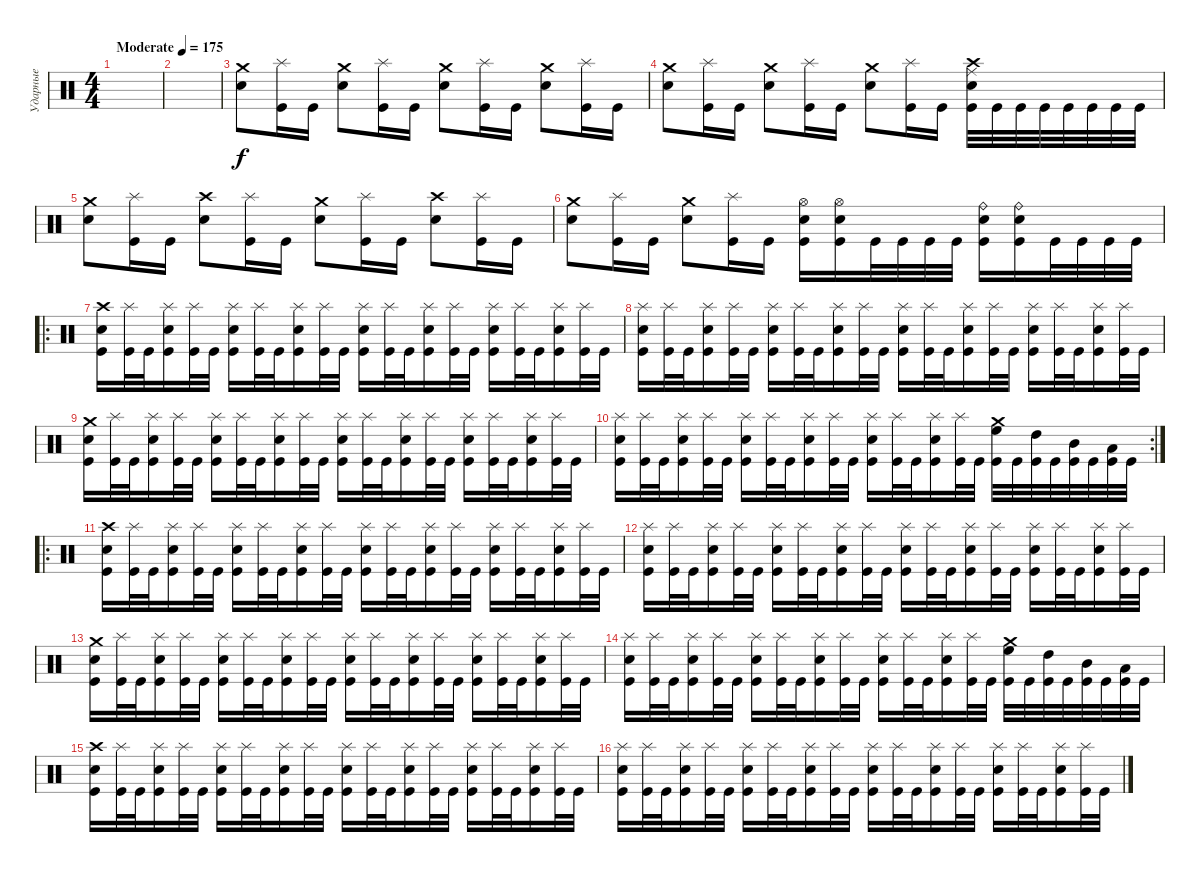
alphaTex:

\track ("Ударные" "Ударные") {instrument percussion}
\staff {score}
\articulation defaults
\ts (4 4)
\tempo (175 "Moderate")
\clef neutral
\ks c
|
|
("Snare (hit) 2" "Crash medium (hit)").8 ("Splash (hit)" "Kick (hit)").16 "Kick (hit)".16 ("Snare (hit) 2" "Crash medium (hit)").8 ("Splash (hit)" "Kick (hit)").16 "Kick (hit)".16 ("Snare (hit) 2" "Crash medium (hit)").8 ("Splash (hit)" "Kick (hit)").16 "Kick (hit)".16 ("Snare (hit) 2" "Crash medium (hit)").8 ("Splash (hit)" "Kick (hit)").16 "Kick (hit)".16 |
("Snare (hit) 2" "Crash medium (hit)").8 ("Splash (hit)" "Kick (hit)").16 "Kick (hit)".16 ("Snare (hit) 2" "Crash medium (hit)").8 ("Splash (hit)" "Kick (hit)").16 "Kick (hit)".16 ("Snare (hit) 2" "Crash medium (hit)").8 ("Splash (hit)" "Kick (hit)").16 "Kick (hit)".16 ("Snare (hit) 2" "Ride (middle)" "Kick (hit)" "Crash high (hit)").32 "Kick (hit)".32 "Kick (hit)".32 "Kick (hit)".32 "Kick (hit)".32 "Kick (hit)".32 "Kick (hit)".32 "Kick (hit)".32 |
("Snare (hit) 2" "Crash medium (hit)").8 ("Splash (hit)" "Kick (hit)").16 "Kick (hit)".16 ("Snare (hit) 2" "Crash high (hit)").8 ("Splash (hit)" "Kick (hit)").16 "Kick (hit)".16 ("Snare (hit) 2" "Crash medium (hit)").8 ("Splash (hit)" "Kick (hit)").16 "Kick (hit)".16 ("Snare (hit) 2" "Crash high (hit)").8 ("Splash (hit)" "Kick (hit)").16 "Kick (hit)".16 |
("Snare (hit) 2" "Crash medium (hit)").8 ("Splash (hit)" "Kick (hit)").16 "Kick (hit)".16 ("Snare (hit) 2" "Crash medium (hit)").8 ("Splash (hit)" "Kick (hit)").16 "Kick (hit)".16 ("Hi-Hat (open)" "Snare (hit) 2" "Kick (hit)").16 ("Hi-Hat (open)" "Snare (hit) 2" "Kick (hit)").16 "Kick (hit)".32 "Kick (hit)".32 "Kick (hit)".32 "Kick (hit)".32 ("Ride (bell)" "Snare (hit) 2" "Kick (hit)").16 ("Ride (bell)" "Snare (hit) 2" "Kick (hit)").16 "Kick (hit)".32 "Kick (hit)".32 "Kick (hit)".32 "Kick (hit)".32 |
\ro
("Crash high (hit)" "Snare (hit) 2" "Kick (hit)").16 ("Splash (hit)" "Kick (hit)").32 "Kick (hit)".32 ("Splash (hit)" "Snare (hit) 2" "Kick (hit)").16 ("Splash (hit)" "Kick (hit)").32 "Kick (hit)".32 ("Splash (hit)" "Snare (hit) 2" "Kick (hit)").16 ("Splash (hit)" "Kick (hit)").32 "Kick (hit)".32 ("Splash (hit)" "Snare (hit) 2" "Kick (hit)").16 ("Splash (hit)" "Kick (hit)").32 "Kick (hit)".32 ("Splash (hit)" "Snare (hit) 2" "Kick (hit)").16 ("Splash (hit)" "Kick (hit)").32 "Kick (hit)".32 ("Splash (hit)" "Snare (hit) 2" "Kick (hit)").16 ("Splash (hit)" "Kick (hit)").32 "Kick (hit)".32 ("Splash (hit)" "Snare (hit) 2" "Kick (hit)").16 ("Splash (hit)" "Kick (hit)").32 "Kick (hit)".32 ("Splash (hit)" "Snare (hit) 2" "Kick (hit)").16 ("Splash (hit)" "Kick (hit)").32 "Kick (hit)".32 |
("Splash (hit)" "Snare (hit) 2" "Kick (hit)").16 ("Splash (hit)" "Kick (hit)").32 "Kick (hit)".32 ("Splash (hit)" "Snare (hit) 2" "Kick (hit)").16 ("Splash (hit)" "Kick (hit)").32 "Kick (hit)".32 ("Splash (hit)" "Snare (hit) 2" "Kick (hit)").16 ("Splash (hit)" "Kick (hit)").32 "Kick (hit)".32 ("Splash (hit)" "Snare (hit) 2" "Kick (hit)").16 ("Splash (hit)" "Kick (hit)").32 "Kick (hit)".32 ("Splash (hit)" "Snare (hit) 2" "Kick (hit)").16 ("Splash (hit)" "Kick (hit)").32 "Kick (hit)".32 ("Splash (hit)" "Snare (hit) 2" "Kick (hit)").16 ("Splash (hit)" "Kick (hit)").32 "Kick (hit)".32 ("Splash (hit)" "Snare (hit) 2" "Kick (hit)").16 ("Splash (hit)" "Kick (hit)").32 "Kick (hit)".32 ("Splash (hit)" "Snare (hit) 2" "Kick (hit)").16 ("Splash (hit)" "Kick (hit)").32 "Kick (hit)".32 |
("Crash medium (hit)" "Snare (hit) 2" "Kick (hit)").16 ("Splash (hit)" "Kick (hit)").32 "Kick (hit)".32 ("Splash (hit)" "Snare (hit) 2" "Kick (hit)").16 ("Splash (hit)" "Kick (hit)").32 "Kick (hit)".32 ("Splash (hit)" "Snare (hit) 2" "Kick (hit)").16 ("Splash (hit)" "Kick (hit)").32 "Kick (hit)".32 ("Splash (hit)" "Snare (hit) 2" "Kick (hit)").16 ("Splash (hit)" "Kick (hit)").32 "Kick (hit)".32 ("Splash (hit)" "Snare (hit) 2" "Kick (hit)").16 ("Splash (hit)" "Kick (hit)").32 "Kick (hit)".32 ("Splash (hit)" "Snare (hit) 2" "Kick (hit)").16 ("Splash (hit)" "Kick (hit)").32 "Kick (hit)".32 ("Splash (hit)" "Snare (hit) 2" "Kick (hit)").16 ("Splash (hit)" "Kick (hit)").32 "Kick (hit)".32 ("Splash (hit)" "Snare (hit) 2" "Kick (hit)").16 ("Splash (hit)" "Kick (hit)").32 "Kick (hit)".32 |
\rc 2
("Splash (hit)" "Snare (hit) 2" "Kick (hit)").16 ("Splash (hit)" "Kick (hit)").32 "Kick (hit)".32 ("Splash (hit)" "Snare (hit) 2" "Kick (hit)").16 ("Splash (hit)" "Kick (hit)").32 "Kick (hit)".32 ("Splash (hit)" "Snare (hit) 2" "Kick (hit)").16 ("Splash (hit)" "Kick (hit)").32 "Kick (hit)".32 ("Splash (hit)" "Snare (hit) 2" "Kick (hit)").16 ("Splash (hit)" "Kick (hit)").32 "Kick (hit)".32 ("Splash (hit)" "Snare (hit) 2" "Kick (hit)").16 ("Splash (hit)" "Kick (hit)").32 "Kick (hit)".32 ("Splash (hit)" "Snare (hit) 2" "Kick (hit)").16 ("Splash (hit)" "Kick (hit)").32 "Kick (hit)".32 ("High Floor Tom (hit)" "Kick (hit)" "Crash medium (hit)").32 "Kick (hit)".32 ("High Tom (hit)" "Kick (hit)").32 "Kick (hit)".32 ("Mid Tom (hit)" "Kick (hit)").32 "Kick (hit)".32 ("Low Tom (hit)" "Kick (hit)").32 "Kick (hit)".32 |
\ro
("Crash high (hit)" "Snare (hit) 2" "Kick (hit)").16 ("Splash (hit)" "Kick (hit)").32 "Kick (hit)".32 ("Splash (hit)" "Snare (hit) 2" "Kick (hit)").16 ("Splash (hit)" "Kick (hit)").32 "Kick (hit)".32 ("Splash (hit)" "Snare (hit) 2" "Kick (hit)").16 ("Splash (hit)" "Kick (hit)").32 "Kick (hit)".32 ("Splash (hit)" "Snare (hit) 2" "Kick (hit)").16 ("Splash (hit)" "Kick (hit)").32 "Kick (hit)".32 ("Splash (hit)" "Snare (hit) 2" "Kick (hit)").16 ("Splash (hit)" "Kick (hit)").32 "Kick (hit)".32 ("Splash (hit)" "Snare (hit) 2" "Kick (hit)").16 ("Splash (hit)" "Kick (hit)").32 "Kick (hit)".32 ("Splash (hit)" "Snare (hit) 2" "Kick (hit)").16 ("Splash (hit)" "Kick (hit)").32 "Kick (hit)".32 ("Splash (hit)" "Snare (hit) 2" "Kick (hit)").16 ("Splash (hit)" "Kick (hit)").32 "Kick (hit)".32 |
("Splash (hit)" "Snare (hit) 2" "Kick (hit)").16 ("Splash (hit)" "Kick (hit)").32 "Kick (hit)".32 ("Splash (hit)" "Snare (hit) 2" "Kick (hit)").16 ("Splash (hit)" "Kick (hit)").32 "Kick (hit)".32 ("Splash (hit)" "Snare (hit) 2" "Kick (hit)").16 ("Splash (hit)" "Kick (hit)").32 "Kick (hit)".32 ("Splash (hit)" "Snare (hit) 2" "Kick (hit)").16 ("Splash (hit)" "Kick (hit)").32 "Kick (hit)".32 ("Splash (hit)" "Snare (hit) 2" "Kick (hit)").16 ("Splash (hit)" "Kick (hit)").32 "Kick (hit)".32 ("Splash (hit)" "Snare (hit) 2" "Kick (hit)").16 ("Splash (hit)" "Kick (hit)").32 "Kick (hit)".32 ("Splash (hit)" "Snare (hit) 2" "Kick (hit)").16 ("Splash (hit)" "Kick (hit)").32 "Kick (hit)".32 ("Splash (hit)" "Snare (hit) 2" "Kick (hit)").16 ("Splash (hit)" "Kick (hit)").32 "Kick (hit)".32 |
("Crash medium (hit)" "Snare (hit) 2" "Kick (hit)").16 ("Splash (hit)" "Kick (hit)").32 "Kick (hit)".32 ("Splash (hit)" "Snare (hit) 2" "Kick (hit)").16 ("Splash (hit)" "Kick (hit)").32 "Kick (hit)".32 ("Splash (hit)" "Snare (hit) 2" "Kick (hit)").16 ("Splash (hit)" "Kick (hit)").32 "Kick (hit)".32 ("Splash (hit)" "Snare (hit) 2" "Kick (hit)").16 ("Splash (hit)" "Kick (hit)").32 "Kick (hit)".32 ("Splash (hit)" "Snare (hit) 2" "Kick (hit)").16 ("Splash (hit)" "Kick (hit)").32 "Kick (hit)".32 ("Splash (hit)" "Snare (hit) 2" "Kick (hit)").16 ("Splash (hit)" "Kick (hit)").32 "Kick (hit)".32 ("Splash (hit)" "Snare (hit) 2" "Kick (hit)").16 ("Splash (hit)" "Kick (hit)").32 "Kick (hit)".32 ("Splash (hit)" "Snare (hit) 2" "Kick (hit)").16 ("Splash (hit)" "Kick (hit)").32 "Kick (hit)".32 |
("Splash (hit)" "Snare (hit) 2" "Kick (hit)").16 ("Splash (hit)" "Kick (hit)").32 "Kick (hit)".32 ("Splash (hit)" "Snare (hit) 2" "Kick (hit)").16 ("Splash (hit)" "Kick (hit)").32 "Kick (hit)".32 ("Splash (hit)" "Snare (hit) 2" "Kick (hit)").16 ("Splash (hit)" "Kick (hit)").32 "Kick (hit)".32 ("Splash (hit)" "Snare (hit) 2" "Kick (hit)").16 ("Splash (hit)" "Kick (hit)").32 "Kick (hit)".32 ("Splash (hit)" "Snare (hit) 2" "Kick (hit)").16 ("Splash (hit)" "Kick (hit)").32 "Kick (hit)".32 ("Splash (hit)" "Snare (hit) 2" "Kick (hit)").16 ("Splash (hit)" "Kick (hit)").32 "Kick (hit)".32 ("High Floor Tom (hit)" "Kick (hit)" "Crash medium (hit)").32 "Kick (hit)".32 ("High Tom (hit)" "Kick (hit)").32 "Kick (hit)".32 ("Mid Tom (hit)" "Kick (hit)").32 "Kick (hit)".32 ("Low Tom (hit)" "Kick (hit)").32 "Kick (hit)".32 |
("Crash high (hit)" "Snare (hit) 2" "Kick (hit)").16 ("Splash (hit)" "Kick (hit)").32 "Kick (hit)".32 ("Splash (hit)" "Snare (hit) 2" "Kick (hit)").16 ("Splash (hit)" "Kick (hit)").32 "Kick (hit)".32 ("Splash (hit)" "Snare (hit) 2" "Kick (hit)").16 ("Splash (hit)" "Kick (hit)").32 "Kick (hit)".32 ("Splash (hit)" "Snare (hit) 2" "Kick (hit)").16 ("Splash (hit)" "Kick (hit)").32 "Kick (hit)".32 ("Splash (hit)" "Snare (hit) 2" "Kick (hit)").16 ("Splash (hit)" "Kick (hit)").32 "Kick (hit)".32 ("Splash (hit)" "Snare (hit) 2" "Kick (hit)").16 ("Splash (hit)" "Kick (hit)").32 "Kick (hit)".32 ("Splash (hit)" "Snare (hit) 2" "Kick (hit)").16 ("Splash (hit)" "Kick (hit)").32 "Kick (hit)".32 ("Splash (hit)" "Snare (hit) 2" "Kick (hit)").16 ("Splash (hit)" "Kick (hit)").32 "Kick (hit)".32 |
("Splash (hit)" "Snare (hit) 2" "Kick (hit)").16 ("Splash (hit)" "Kick (hit)").32 "Kick (hit)".32 ("Splash (hit)" "Snare (hit) 2" "Kick (hit)").16 ("Splash (hit)" "Kick (hit)").32 "Kick (hit)".32 ("Splash (hit)" "Snare (hit) 2" "Kick (hit)").16 ("Splash (hit)" "Kick (hit)").32 "Kick (hit)".32 ("Splash (hit)" "Snare (hit) 2" "Kick (hit)").16 ("Splash (hit)" "Kick (hit)").32 "Kick (hit)".32 ("Splash (hit)" "Snare (hit) 2" "Kick (hit)").16 ("Splash (hit)" "Kick (hit)").32 "Kick (hit)".32 ("Splash (hit)" "Snare (hit) 2" "Kick (hit)").16 ("Splash (hit)" "Kick (hit)").32 "Kick (hit)".32 ("Splash (hit)" "Snare (hit) 2" "Kick (hit)").16 ("Splash (hit)" "Kick (hit)").32 "Kick (hit)".32 ("Splash (hit)" "Snare (hit) 2" "Kick (hit)").16 ("Splash (hit)" "Kick (hit)").32 "Kick (hit)".32
